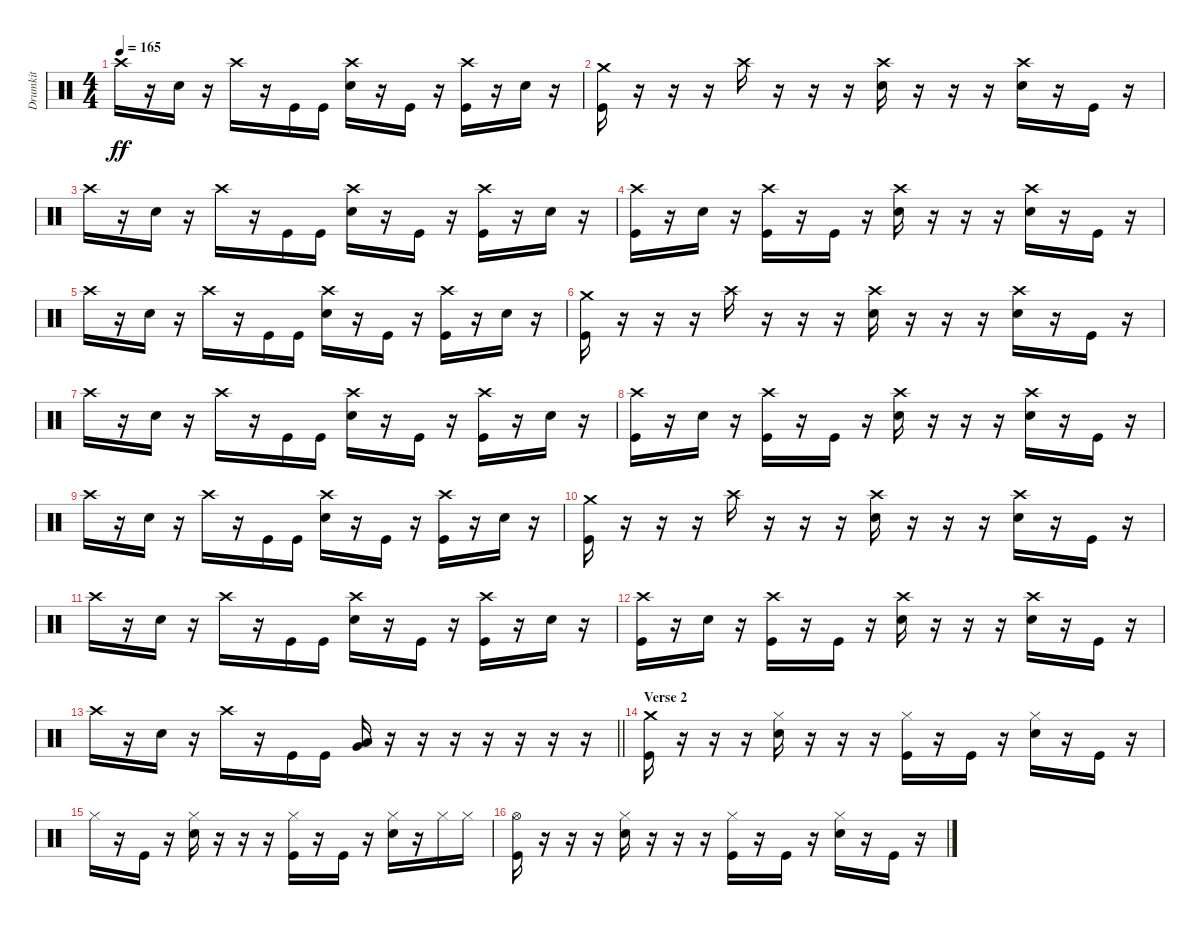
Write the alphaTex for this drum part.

\track ("Drumkit" "Drumkit") {instrument percussion}
\staff {score}
\articulation defaults
\ts (4 4)
\tempo 165
\clef neutral
\ks c "Crash high (hit)".16{dy ff}
r.16 "Snare (hit) 2".16 r.16 "Crash high (hit)".16 r.16 "Kick (hit)".16 "Kick (hit)".16 ("Crash high (hit)" "Snare (hit) 2").16 r.16 "Kick (hit)".16 r.16 ("Crash high (hit)" "Kick (hit)").16 r.16 "Snare (hit) 2".16 r.16 |
("Crash medium (hit)" "Kick (hit)").16 r.16 r.16 r.16 "Crash high (hit)".16 r.16 r.16 r.16 ("Crash high (hit)" "Snare (hit) 2").16 r.16 r.16 r.16 ("Crash high (hit)" "Snare (hit) 2").16 r.16 "Kick (hit)".16 r.16 |
"Crash high (hit)".16 r.16 "Snare (hit) 2".16 r.16 "Crash high (hit)".16 r.16 "Kick (hit)".16 "Kick (hit)".16 ("Crash high (hit)" "Snare (hit) 2").16 r.16 "Kick (hit)".16 r.16 ("Crash high (hit)" "Kick (hit)").16 r.16 "Snare (hit) 2".16 r.16 |
("Crash high (hit)" "Kick (hit)").16 r.16 "Snare (hit) 2".16 r.16 ("Crash high (hit)" "Kick (hit)").16 r.16 "Kick (hit)".16 r.16 ("Crash high (hit)" "Snare (hit) 2").16 r.16 r.16 r.16 ("Crash high (hit)" "Snare (hit) 2").16 r.16 "Kick (hit)".16 r.16 |
"Crash high (hit)".16 r.16 "Snare (hit) 2".16 r.16 "Crash high (hit)".16 r.16 "Kick (hit)".16 "Kick (hit)".16 ("Crash high (hit)" "Snare (hit) 2").16 r.16 "Kick (hit)".16 r.16 ("Crash high (hit)" "Kick (hit)").16 r.16 "Snare (hit) 2".16 r.16 |
("Crash medium (hit)" "Kick (hit)").16 r.16 r.16 r.16 "Crash high (hit)".16 r.16 r.16 r.16 ("Crash high (hit)" "Snare (hit) 2").16 r.16 r.16 r.16 ("Crash high (hit)" "Snare (hit) 2").16 r.16 "Kick (hit)".16 r.16 |
"Crash high (hit)".16 r.16 "Snare (hit) 2".16 r.16 "Crash high (hit)".16 r.16 "Kick (hit)".16 "Kick (hit)".16 ("Crash high (hit)" "Snare (hit) 2").16 r.16 "Kick (hit)".16 r.16 ("Crash high (hit)" "Kick (hit)").16 r.16 "Snare (hit) 2".16 r.16 |
("Crash high (hit)" "Kick (hit)").16 r.16 "Snare (hit) 2".16 r.16 ("Crash high (hit)" "Kick (hit)").16 r.16 "Kick (hit)".16 r.16 ("Crash high (hit)" "Snare (hit) 2").16 r.16 r.16 r.16 ("Crash high (hit)" "Snare (hit) 2").16 r.16 "Kick (hit)".16 r.16 |
"Crash high (hit)".16 r.16 "Snare (hit) 2".16 r.16 "Crash high (hit)".16 r.16 "Kick (hit)".16 "Kick (hit)".16 ("Crash high (hit)" "Snare (hit) 2").16 r.16 "Kick (hit)".16 r.16 ("Crash high (hit)" "Kick (hit)").16 r.16 "Snare (hit) 2".16 r.16 |
("Crash medium (hit)" "Kick (hit)").16 r.16 r.16 r.16 "Crash high (hit)".16 r.16 r.16 r.16 ("Crash high (hit)" "Snare (hit) 2").16 r.16 r.16 r.16 ("Crash high (hit)" "Snare (hit) 2").16 r.16 "Kick (hit)".16 r.16 |
"Crash high (hit)".16 r.16 "Snare (hit) 2".16 r.16 "Crash high (hit)".16 r.16 "Kick (hit)".16 "Kick (hit)".16 ("Crash high (hit)" "Snare (hit) 2").16 r.16 "Kick (hit)".16 r.16 ("Crash high (hit)" "Kick (hit)").16 r.16 "Snare (hit) 2".16 r.16 |
("Crash high (hit)" "Kick (hit)").16 r.16 "Snare (hit) 2".16 r.16 ("Crash high (hit)" "Kick (hit)").16 r.16 "Kick (hit)".16 r.16 ("Crash high (hit)" "Snare (hit) 2").16 r.16 r.16 r.16 ("Crash high (hit)" "Snare (hit) 2").16 r.16 "Kick (hit)".16 r.16 |
\barLineRight lightlight "Crash high (hit)".16
r.16 "Snare (hit) 2".16 r.16 "Crash high (hit)".16 r.16 "Kick (hit)".16 "Kick (hit)".16 ("Very Low Tom (hit)" "Low Floor Tom (hit)").16 r.16 r.16 r.16 r.16 r.16 r.16 r.16 |
\section ("" "Verse 2")
("Crash medium (hit)" "Kick (hit)").16 r.16 r.16 r.16 ("Hi-Hat (closed)" "Snare (hit) 2").16 r.16 r.16 r.16 ("Hi-Hat (closed)" "Kick (hit)").16 r.16 "Kick (hit)".16 r.16 ("Hi-Hat (closed)" "Snare (hit) 2").16 r.16 "Kick (hit)".16 r.16 |
"Hi-Hat (closed)".16 r.16 "Kick (hit)".16 r.16 ("Hi-Hat (closed)" "Snare (hit) 2").16 r.16 r.16 r.16 ("Hi-Hat (closed)" "Kick (hit)").16 r.16 "Kick (hit)".16 r.16 ("Hi-Hat (closed)" "Snare (hit) 2").16 r.16 "Hi-Hat (closed)".16 "Hi-Hat (closed)".16 |
("Hi-Hat (open)" "Kick (hit)").16 r.16 r.16 r.16 ("Hi-Hat (closed)" "Snare (hit) 2").16 r.16 r.16 r.16 ("Hi-Hat (closed)" "Kick (hit)").16 r.16 "Kick (hit)".16 r.16 ("Hi-Hat (closed)" "Snare (hit) 2").16 r.16 "Kick (hit)".16 r.16
